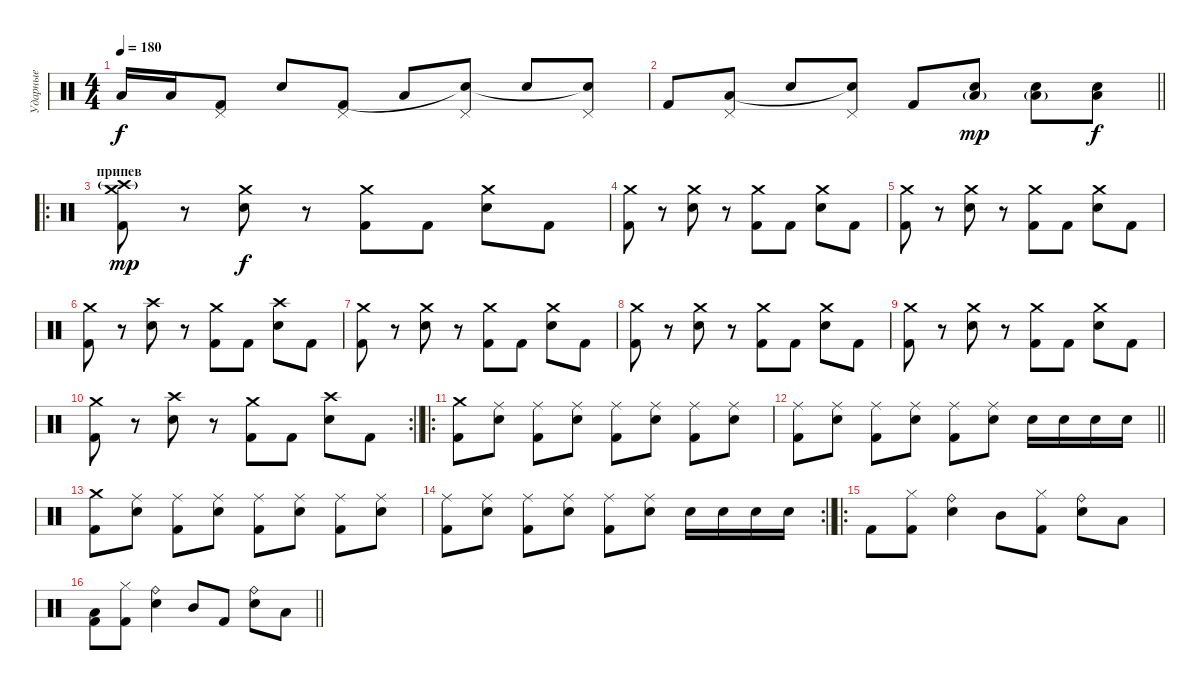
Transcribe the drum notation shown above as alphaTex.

\track ("Ударные" "Ударные") {instrument percussion}
\staff {score}
\articulation defaults
\ts (4 4)
\tempo 180
\clef neutral
\ks c "Low Tom (hit)".16{dy f} "Low Tom (hit)".16
("Pedal Hi-Hat (hit)" "Kick (hit) 2").8 "Snare (hit) 2".8 ("Pedal Hi-Hat (hit)" "Kick (hit) 2").8 "Low Floor Tom (hit)".8 ("Pedal Hi-Hat (hit)" "Snare (hit)"{t}).8 "Snare (hit) 2".8 ("Pedal Hi-Hat (hit)" "Snare (hit)"{t}).8 |
\barLineRight lightlight "Kick (hit) 2".8
("Pedal Hi-Hat (hit)" "Low Floor Tom (hit)").8 "Snare (hit) 2".8 ("Pedal Hi-Hat (hit)" "Snare (hit)"{t}).8 "Kick (hit) 2".8 ("Low Floor Tom (hit)"{g} "Snare (hit) 2").8{dy mp} ("Low Floor Tom (hit)"{g} "Snare (hit) 2").8 ("Low Floor Tom (hit)" "Snare (hit) 2").8{dy f} |
\ro
\section ("" "припев")
("Crash medium (hit)" "Crash high (hit)"{g} "Kick (hit) 2").8{dy mp} r.8 ("Crash medium (hit)" "Snare (hit) 2").8{dy f} r.8 ("Crash medium (hit)" "Kick (hit) 2").8 "Kick (hit) 2".8 ("Crash medium (hit)" "Snare (hit) 2").8 "Kick (hit) 2".8 |
("Crash medium (hit)" "Kick (hit) 2").8 r.8 ("Crash medium (hit)" "Snare (hit) 2").8 r.8 ("Crash medium (hit)" "Kick (hit) 2").8 "Kick (hit) 2".8 ("Crash medium (hit)" "Snare (hit) 2").8 "Kick (hit) 2".8 |
("Crash medium (hit)" "Kick (hit) 2").8 r.8 ("Crash medium (hit)" "Snare (hit) 2").8 r.8 ("Crash medium (hit)" "Kick (hit) 2").8 "Kick (hit) 2".8 ("Crash medium (hit)" "Snare (hit) 2").8 "Kick (hit) 2".8 |
("Crash medium (hit)" "Kick (hit) 2").8 r.8 ("Crash high (hit)" "Snare (hit) 2").8 r.8 ("Crash medium (hit)" "Kick (hit) 2").8 "Kick (hit) 2".8 ("Crash high (hit)" "Snare (hit) 2").8 "Kick (hit) 2".8 |
("Crash medium (hit)" "Kick (hit) 2").8 r.8 ("Crash medium (hit)" "Snare (hit) 2").8 r.8 ("Crash medium (hit)" "Kick (hit) 2").8 "Kick (hit) 2".8 ("Crash medium (hit)" "Snare (hit) 2").8 "Kick (hit) 2".8 |
("Crash medium (hit)" "Kick (hit) 2").8 r.8 ("Crash medium (hit)" "Snare (hit) 2").8 r.8 ("Crash medium (hit)" "Kick (hit) 2").8 "Kick (hit) 2".8 ("Crash medium (hit)" "Snare (hit) 2").8 "Kick (hit) 2".8 |
("Crash medium (hit)" "Kick (hit) 2").8 r.8 ("Crash medium (hit)" "Snare (hit) 2").8 r.8 ("Crash medium (hit)" "Kick (hit) 2").8 "Kick (hit) 2".8 ("Crash medium (hit)" "Snare (hit) 2").8 "Kick (hit) 2".8 |
\rc 2
\barLineRight lightlight
("Crash medium (hit)" "Kick (hit) 2").8 r.8 ("Crash high (hit)" "Snare (hit) 2").8 r.8 ("Crash medium (hit)" "Kick (hit) 2").8 "Kick (hit) 2".8 ("Crash high (hit)" "Snare (hit) 2").8 "Kick (hit) 2".8 |
\ro
("Crash medium (hit)" "Kick (hit) 2").8 ("Ride (middle)" "Snare (hit) 2").8 ("Ride (middle)" "Kick (hit) 2").8 ("Ride (middle)" "Snare (hit) 2").8 ("Ride (middle)" "Kick (hit) 2").8 ("Ride (middle)" "Snare (hit) 2").8 ("Ride (middle)" "Kick (hit) 2").8 ("Ride (middle)" "Snare (hit) 2").8 |
\barLineRight lightlight
("Ride (middle)" "Kick (hit) 2").8 ("Ride (middle)" "Snare (hit) 2").8 ("Ride (middle)" "Kick (hit) 2").8 ("Ride (middle)" "Snare (hit) 2").8 ("Ride (middle)" "Kick (hit) 2").8 ("Ride (middle)" "Snare (hit) 2").8 "Snare (hit) 2".16 "Snare (hit) 2".16 "Snare (hit) 2".16 "Snare (hit) 2".16 |
("Crash medium (hit)" "Kick (hit) 2").8 ("Ride (middle)" "Snare (hit) 2").8 ("Ride (middle)" "Kick (hit) 2").8 ("Ride (middle)" "Snare (hit) 2").8 ("Ride (middle)" "Kick (hit) 2").8 ("Ride (middle)" "Snare (hit) 2").8 ("Ride (middle)" "Kick (hit) 2").8 ("Ride (middle)" "Snare (hit) 2").8 |
\rc 2
\barLineRight lightlight
("Ride (middle)" "Kick (hit) 2").8 ("Ride (middle)" "Snare (hit) 2").8 ("Ride (middle)" "Kick (hit) 2").8 ("Ride (middle)" "Snare (hit) 2").8 ("Ride (middle)" "Kick (hit) 2").8 ("Ride (middle)" "Snare (hit) 2").8 "Snare (hit) 2".16 "Snare (hit) 2".16 "Snare (hit) 2".16 "Snare (hit) 2".16 |
\ro "Kick (hit) 2".8
("Hi-Hat (closed)" "Kick (hit) 2").8 ("Ride (bell)" "Electric Snare (hit)").4 "Mid Tom (hit)".8 ("Hi-Hat (closed)" "Kick (hit) 2").8 ("Ride (bell)" "Snare (hit) 2").8 "Low Tom (hit)".8 |
\barLineRight lightlight
("Kick (hit) 2" "Low Floor Tom (hit)").8 ("Hi-Hat (closed)" "Kick (hit) 2").8 ("Ride (bell)" "Snare (hit) 2").4 "Mid Tom (hit)".8 "Kick (hit) 2".8 ("Ride (bell)" "Snare (hit) 2").8 "Low Tom (hit)".8
